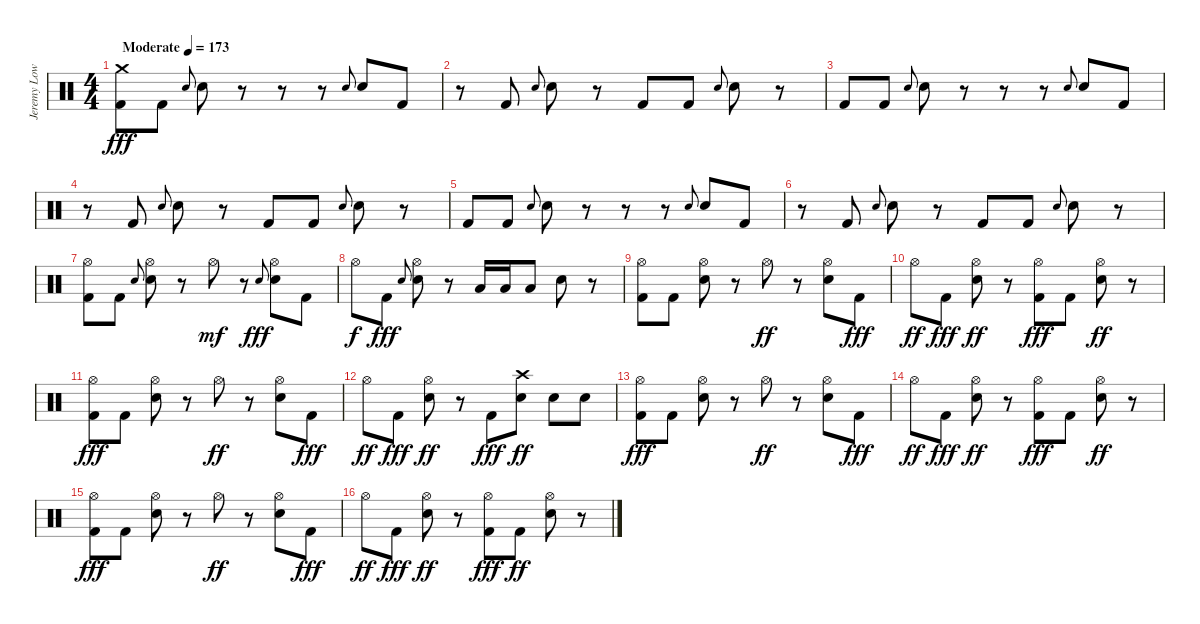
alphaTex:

\track ("Jeremy Lowery" "Jeremy Low") {instrument percussion}
\staff {score}
\articulation defaults
\ts (4 4)
\tempo (173 "Moderate")
\clef neutral
\ks c
("Crash medium (hit)" "Kick (hit) 2").8{dy fff} "Kick (hit) 2".8 "Electric Snare (hit)".8{gr onbeat} "Electric Snare (hit)".8 r.8 r.8 r.8 "Electric Snare (hit)".8{gr onbeat} "Electric Snare (hit)".8 "Kick (hit) 2".8 |
r.8 "Kick (hit) 2".8 "Electric Snare (hit)".8{gr onbeat} "Electric Snare (hit)".8 r.8 "Kick (hit) 2".8 "Kick (hit) 2".8 "Electric Snare (hit)".8{gr onbeat} "Electric Snare (hit)".8 r.8 |
"Kick (hit) 2".8 "Kick (hit) 2".8 "Electric Snare (hit)".8{gr onbeat} "Electric Snare (hit)".8 r.8 r.8 r.8 "Electric Snare (hit)".8{gr onbeat} "Electric Snare (hit)".8 "Kick (hit) 2".8 |
r.8 "Kick (hit) 2".8 "Electric Snare (hit)".8{gr onbeat} "Electric Snare (hit)".8 r.8 "Kick (hit) 2".8 "Kick (hit) 2".8 "Electric Snare (hit)".8{gr onbeat} "Electric Snare (hit)".8 r.8 |
"Kick (hit) 2".8 "Kick (hit) 2".8 "Electric Snare (hit)".8{gr onbeat} "Electric Snare (hit)".8 r.8 r.8 r.8 "Electric Snare (hit)".8{gr onbeat} "Electric Snare (hit)".8 "Kick (hit) 2".8 |
r.8 "Kick (hit) 2".8 "Electric Snare (hit)".8{gr onbeat} "Electric Snare (hit)".8 r.8 "Kick (hit) 2".8 "Kick (hit) 2".8 "Electric Snare (hit)".8{gr onbeat} "Electric Snare (hit)".8 r.8 |
("Hi-Hat (open)" "Kick (hit) 2").8 "Kick (hit) 2".8 "Electric Snare (hit)".8{gr onbeat} ("Hi-Hat (open)" "Electric Snare (hit)").8 r.8 "Hi-Hat (open)".8{dy mf} r.8 "Electric Snare (hit)".8{gr onbeat dy fff} ("Hi-Hat (open)" "Electric Snare (hit)").8 "Kick (hit) 2".8 |
"Hi-Hat (open)".8{dy f} "Kick (hit) 2".8{dy fff} "Electric Snare (hit)".8{gr onbeat} ("Hi-Hat (open)" "Electric Snare (hit)").8 r.8 "Low Floor Tom (hit)".16 "Low Floor Tom (hit)".16 "Low Floor Tom (hit)".8 "Electric Snare (hit)".8 r.8 |
("Hi-Hat (open)" "Kick (hit) 2").8 "Kick (hit) 2".8 ("Hi-Hat (open)" "Electric Snare (hit)").8 r.8 "Hi-Hat (open)".8{dy ff} r.8 ("Hi-Hat (open)" "Electric Snare (hit)").8 "Kick (hit) 2".8{dy fff} |
"Hi-Hat (open)".8{dy ff} "Kick (hit) 2".8{dy fff} ("Hi-Hat (open)" "Electric Snare (hit)").8{dy ff} r.8 ("Hi-Hat (open)" "Kick (hit) 2").8{dy fff} "Kick (hit) 2".8 ("Hi-Hat (open)" "Electric Snare (hit)").8{dy ff} r.8 |
("Hi-Hat (open)" "Kick (hit) 2").8{dy fff} "Kick (hit) 2".8 ("Hi-Hat (open)" "Electric Snare (hit)").8 r.8 "Hi-Hat (open)".8{dy ff} r.8 ("Hi-Hat (open)" "Electric Snare (hit)").8 "Kick (hit) 2".8{dy fff} |
"Hi-Hat (open)".8{dy ff} "Kick (hit) 2".8{dy fff} ("Hi-Hat (open)" "Electric Snare (hit)").8{dy ff} r.8 "Kick (hit) 2".8{dy fff} ("Crash high (hit)" "Electric Snare (hit)").8{dy ff} "Electric Snare (hit)".8 "Electric Snare (hit)".8 |
("Hi-Hat (open)" "Kick (hit) 2").8{dy fff} "Kick (hit) 2".8 ("Hi-Hat (open)" "Electric Snare (hit)").8 r.8 "Hi-Hat (open)".8{dy ff} r.8 ("Hi-Hat (open)" "Electric Snare (hit)").8 "Kick (hit) 2".8{dy fff} |
"Hi-Hat (open)".8{dy ff} "Kick (hit) 2".8{dy fff} ("Hi-Hat (open)" "Electric Snare (hit)").8{dy ff} r.8 ("Hi-Hat (open)" "Kick (hit) 2").8{dy fff} "Kick (hit) 2".8 ("Hi-Hat (open)" "Electric Snare (hit)").8{dy ff} r.8 |
("Hi-Hat (open)" "Kick (hit) 2").8{dy fff} "Kick (hit) 2".8 ("Hi-Hat (open)" "Electric Snare (hit)").8 r.8 "Hi-Hat (open)".8{dy ff} r.8 ("Hi-Hat (open)" "Electric Snare (hit)").8 "Kick (hit) 2".8{dy fff} |
"Hi-Hat (open)".8{dy ff} "Kick (hit) 2".8{dy fff} ("Hi-Hat (open)" "Electric Snare (hit)").8{dy ff} r.8 ("Hi-Hat (open)" "Kick (hit) 2").8{dy fff} "Kick (hit) 2".8{dy ff} ("Hi-Hat (open)" "Electric Snare (hit)").8 r.8
